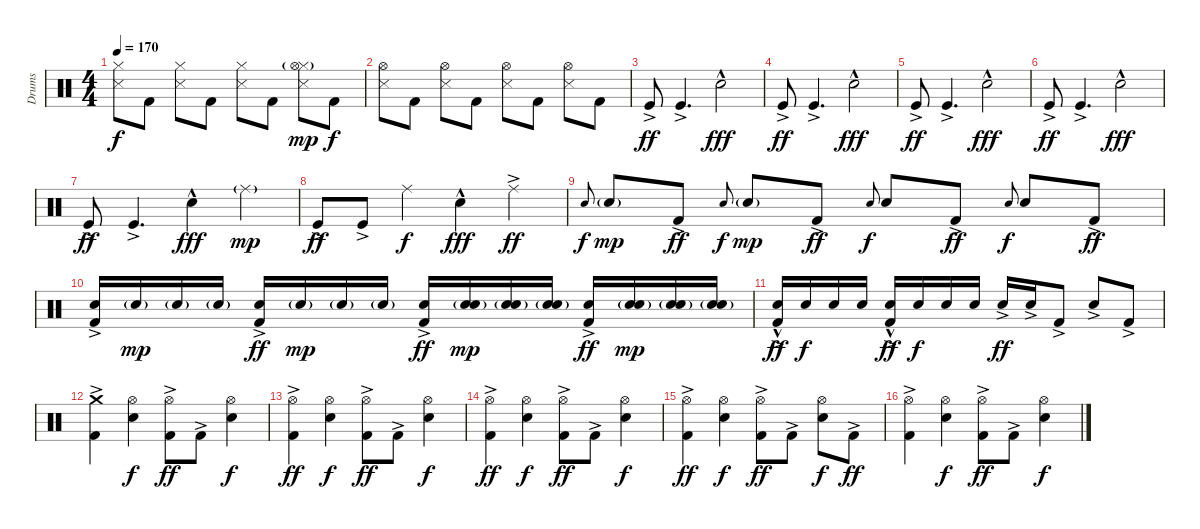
\track ("Drums" "Drums") {instrument percussion}
\staff {score}
\articulation defaults
\ts (4 4)
\tempo 170
\clef neutral
\ks c
("Snare (side stick) 3" "Hi-Hat (closed)").8{dy f} "Kick (hit) 2".8 ("Snare (side stick) 3" "Hi-Hat (closed)").8 "Kick (hit) 2".8 ("Snare (side stick) 3" "Hi-Hat (closed)").8 "Kick (hit) 2".8 ("Snare (side stick) 3" "Hi-Hat (closed)" "Hi-Hat (open)"{g}).8{dy mp} "Kick (hit) 2".8{dy f} |
("Snare (side stick) 3" "Hi-Hat (open)").8 "Kick (hit) 2".8 ("Snare (side stick) 3" "Hi-Hat (open)").8 "Kick (hit) 2".8 ("Snare (side stick) 3" "Hi-Hat (open)").8 "Kick (hit) 2".8 ("Snare (side stick) 3" "Hi-Hat (open)").8 "Kick (hit) 2".8 |
"Kick (hit)"{ac}.8{dy ff} "Kick (hit)"{ac}.4{d} "Snare (hit) 2"{hac}.2{dy fff} |
"Kick (hit)"{ac}.8{dy ff} "Kick (hit)"{ac}.4{d} "Snare (hit) 2"{hac}.2{dy fff} |
"Kick (hit)"{ac}.8{dy ff} "Kick (hit)"{ac}.4{d} "Snare (hit) 2"{hac}.2{dy fff} |
"Kick (hit)"{ac}.8{dy ff} "Kick (hit)"{ac}.4{d} "Snare (hit) 2"{hac}.2{dy fff} |
"Kick (hit)"{ac}.8{dy ff} "Kick (hit)"{ac}.4{d} "Snare (hit) 2"{hac}.4{dy fff} "Ride (middle)"{g}.4{dy mp} |
"Kick (hit)"{ac}.8{dy ff} "Kick (hit)"{ac}.8 "Ride (middle)".4{dy f} "Snare (hit) 2"{hac}.4{dy fff} "Ride (middle)"{ac}.4{dy ff} |
"Electric Snare (hit)".8{gr onbeat dy f} "Electric Snare (hit)"{g}.8{dy mp} "Kick (hit) 2"{ac}.8{dy ff} "Electric Snare (hit)".8{gr onbeat dy f} "Electric Snare (hit)"{g}.8{dy mp} "Kick (hit) 2"{ac}.8{dy ff} "Electric Snare (hit)".8{gr onbeat dy f} "Electric Snare (hit)".8 "Kick (hit) 2"{ac}.8{dy ff} "Electric Snare (hit)".8{gr onbeat dy f} "Electric Snare (hit)".8 "Kick (hit) 2"{ac}.8{dy ff} |
("Snare (hit) 2" "Kick (hit) 2"{ac}).16 "Snare (hit) 2"{g}.16{dy mp} "Snare (hit) 2"{g}.16 "Snare (hit) 2"{g}.16 ("Snare (hit) 2" "Kick (hit) 2"{ac}).16{dy ff} "Snare (hit) 2"{g}.16{dy mp} "Snare (hit) 2"{g}.16 "Snare (hit) 2"{g}.16 ("Snare (hit) 2"{ac} "Kick (hit) 2"{ac}).16{dy ff} ("Snare (hit) 2"{g} "Snare (hit) 2"{g}).16{dy mp} ("Snare (hit) 2"{g} "Snare (hit) 2"{g}).16 ("Snare (hit) 2"{g} "Snare (hit) 2"{g}).16 ("Snare (hit) 2"{ac} "Kick (hit) 2"{ac}).16{dy ff} ("Snare (hit) 2"{g} "Snare (hit) 2"{g}).16{dy mp} ("Snare (hit) 2"{g} "Snare (hit) 2"{g}).16 ("Snare (hit) 2"{g} "Snare (hit) 2"{g}).16 |
("Snare (hit) 2"{hac} "Kick (hit) 2"{ac}).16{dy ff} "Snare (hit) 2".16{dy f} "Snare (hit) 2".16 "Snare (hit) 2".16 ("Snare (hit) 2"{hac} "Kick (hit) 2"{ac}).16{dy ff} "Snare (hit) 2".16{dy f} "Snare (hit) 2".16 "Snare (hit) 2".16 "Electric Snare (hit)"{ac}.16{dy ff} "Electric Snare (hit)"{ac}.16 "Kick (hit) 2"{ac}.8 "Electric Snare (hit)"{ac}.8 "Kick (hit) 2"{ac}.8 |
("Crash medium (hit)" "Kick (hit) 2"{ac}).4 ("Hi-Hat (open)" "Electric Snare (hit)").4{dy f} ("Hi-Hat (open)" "Kick (hit) 2"{ac}).8{dy ff} "Kick (hit) 2"{ac}.8 ("Hi-Hat (open)" "Electric Snare (hit)").4{dy f} |
("Hi-Hat (open)" "Kick (hit) 2"{ac}).4{dy ff} ("Hi-Hat (open)" "Electric Snare (hit)").4{dy f} ("Hi-Hat (open)" "Kick (hit) 2"{ac}).8{dy ff} "Kick (hit) 2"{ac}.8 ("Hi-Hat (open)" "Electric Snare (hit)").4{dy f} |
("Hi-Hat (open)" "Kick (hit) 2"{ac}).4{dy ff} ("Hi-Hat (open)" "Electric Snare (hit)").4{dy f} ("Hi-Hat (open)" "Kick (hit) 2"{ac}).8{dy ff} "Kick (hit) 2"{ac}.8 ("Hi-Hat (open)" "Electric Snare (hit)").4{dy f} |
("Hi-Hat (open)" "Kick (hit) 2"{ac}).4{dy ff} ("Hi-Hat (open)" "Electric Snare (hit)").4{dy f} ("Hi-Hat (open)" "Kick (hit) 2"{ac}).8{dy ff} "Kick (hit) 2"{ac}.8 ("Hi-Hat (open)" "Electric Snare (hit)").8{dy f} "Kick (hit) 2"{ac}.8{dy ff} |
("Hi-Hat (open)" "Kick (hit) 2"{ac}).4 ("Hi-Hat (open)" "Electric Snare (hit)").4{dy f} ("Hi-Hat (open)" "Kick (hit) 2"{ac}).8{dy ff} "Kick (hit) 2"{ac}.8 ("Hi-Hat (open)" "Electric Snare (hit)").4{dy f}
